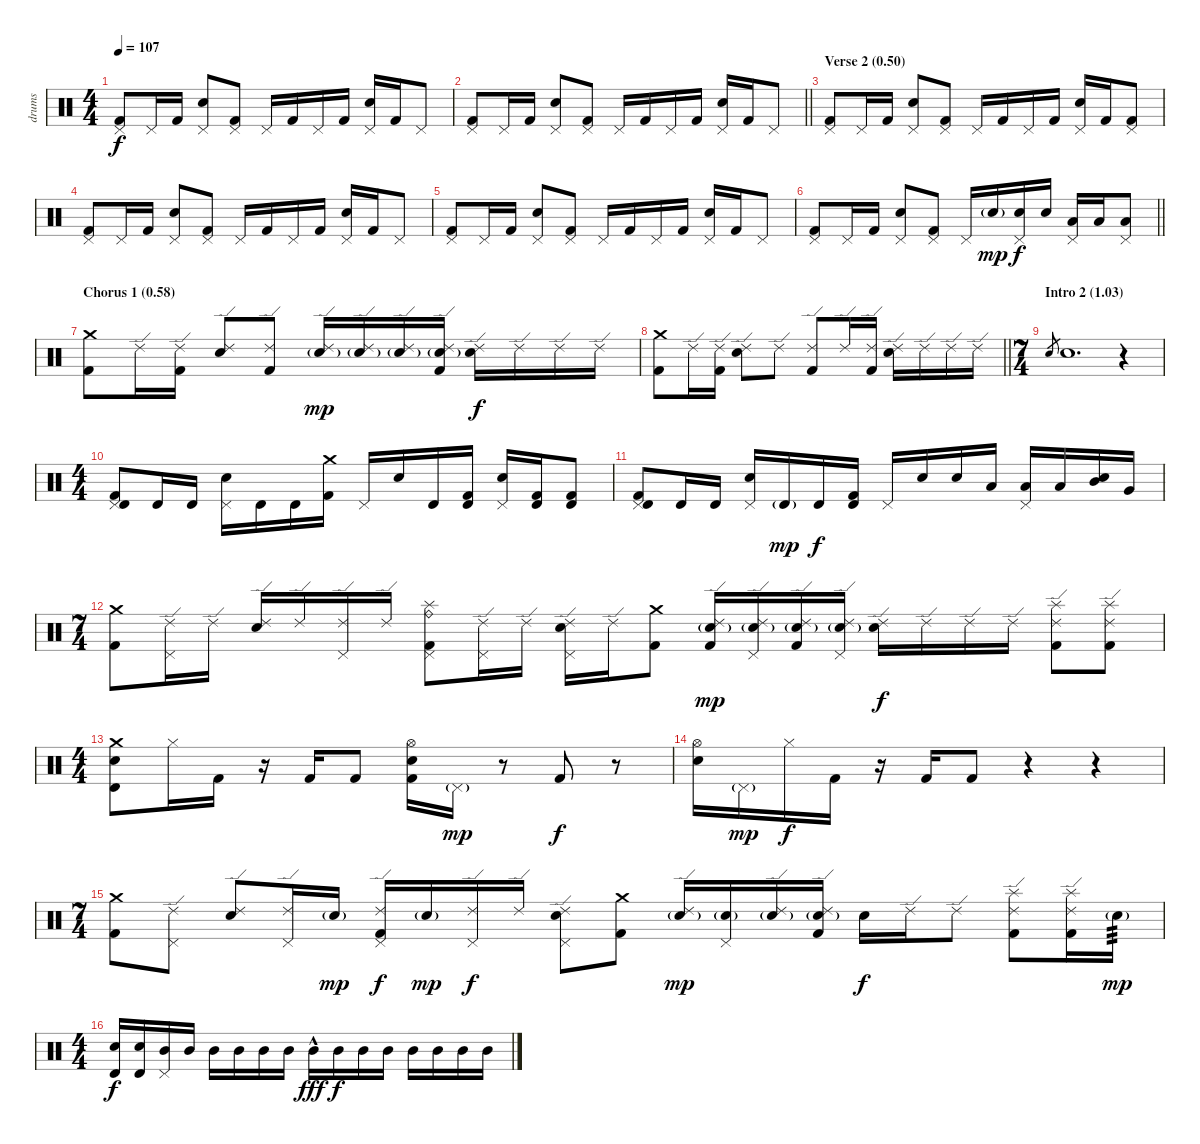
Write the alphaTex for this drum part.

\track ("drums" "drums") {instrument percussion}
\staff {score}
\articulation defaults
\ts (4 4)
\tempo 107
\clef neutral
\ks c
("Pedal Hi-Hat (hit)" "Kick (hit) 2").8{dy f} "Pedal Hi-Hat (hit)".16 "Kick (hit) 2".16 ("Pedal Hi-Hat (hit)" "Electric Snare (hit)").8 ("Pedal Hi-Hat (hit)" "Kick (hit) 2").8 "Pedal Hi-Hat (hit)".16 "Kick (hit) 2".16 "Pedal Hi-Hat (hit)".16 "Kick (hit) 2".16 ("Pedal Hi-Hat (hit)" "Electric Snare (hit)").16 "Kick (hit) 2".16 "Pedal Hi-Hat (hit)".8 |
\barLineRight lightlight
("Pedal Hi-Hat (hit)" "Kick (hit) 2").8 "Pedal Hi-Hat (hit)".16 "Kick (hit) 2".16 ("Pedal Hi-Hat (hit)" "Electric Snare (hit)").8 ("Pedal Hi-Hat (hit)" "Kick (hit) 2").8 "Pedal Hi-Hat (hit)".16 "Kick (hit) 2".16 "Pedal Hi-Hat (hit)".16 "Kick (hit) 2".16 ("Pedal Hi-Hat (hit)" "Electric Snare (hit)").16 "Kick (hit) 2".16 "Pedal Hi-Hat (hit)".8 |
\section ("" "Verse 2 (0.50)")
("Pedal Hi-Hat (hit)" "Kick (hit) 2").8 "Pedal Hi-Hat (hit)".16 "Kick (hit) 2".16 ("Pedal Hi-Hat (hit)" "Electric Snare (hit)").8 ("Pedal Hi-Hat (hit)" "Kick (hit) 2").8 "Pedal Hi-Hat (hit)".16 "Kick (hit) 2".16 "Pedal Hi-Hat (hit)".16 "Kick (hit) 2".16 ("Pedal Hi-Hat (hit)" "Electric Snare (hit)").16 "Kick (hit) 2".16 ("Pedal Hi-Hat (hit)" "Kick (hit) 2").8 |
("Pedal Hi-Hat (hit)" "Kick (hit) 2").8 "Pedal Hi-Hat (hit)".16 "Kick (hit) 2".16 ("Pedal Hi-Hat (hit)" "Electric Snare (hit)").8 ("Pedal Hi-Hat (hit)" "Kick (hit) 2").8 "Pedal Hi-Hat (hit)".16 "Kick (hit) 2".16 "Pedal Hi-Hat (hit)".16 "Kick (hit) 2".16 ("Pedal Hi-Hat (hit)" "Electric Snare (hit)").16 "Kick (hit) 2".16 "Pedal Hi-Hat (hit)".8 |
("Pedal Hi-Hat (hit)" "Kick (hit) 2").8 "Pedal Hi-Hat (hit)".16 "Kick (hit) 2".16 ("Pedal Hi-Hat (hit)" "Electric Snare (hit)").8 ("Pedal Hi-Hat (hit)" "Kick (hit) 2").8 "Pedal Hi-Hat (hit)".16 "Kick (hit) 2".16 "Pedal Hi-Hat (hit)".16 "Kick (hit) 2".16 ("Pedal Hi-Hat (hit)" "Electric Snare (hit)").16 "Kick (hit) 2".16 "Pedal Hi-Hat (hit)".8 |
\barLineRight lightlight
("Pedal Hi-Hat (hit)" "Kick (hit) 2").8 "Pedal Hi-Hat (hit)".16 "Kick (hit) 2".16 ("Pedal Hi-Hat (hit)" "Electric Snare (hit)").8 ("Pedal Hi-Hat (hit)" "Kick (hit) 2").8 "Pedal Hi-Hat (hit)".16 "Electric Snare (hit)"{g}.16{dy mp} ("Pedal Hi-Hat (hit)" "Electric Snare (hit)").16{dy f} "Electric Snare (hit)".16 ("Pedal Hi-Hat (hit)" "Low Tom (hit)").16 "Low Tom (hit)".16 ("Pedal Hi-Hat (hit)" "Low Tom (hit)").8 |
\section ("" "Chorus 1 (0.58)")
("Crash medium (hit)" "Kick (hit) 2").8 "Ride (edge) 2".16 ("Ride (edge) 2" "Kick (hit) 2").16 ("Ride (edge) 2" "Electric Snare (hit)").8 ("Ride (edge) 2" "Kick (hit) 2").8 ("Ride (edge) 2" "Electric Snare (hit)"{g}).16{dy mp} ("Ride (edge) 2" "Electric Snare (hit)"{g}).16 ("Ride (edge) 2" "Electric Snare (hit)"{g}).16 ("Ride (edge) 2" "Electric Snare (hit)"{g} "Kick (hit) 2").16 ("Ride (edge) 2" "Electric Snare (hit)").16{dy f} "Ride (edge) 2".16 "Ride (edge) 2".16 "Ride (edge) 2".16 |
\barLineRight lightlight
("Crash medium (hit)" "Kick (hit) 2").8 "Ride (edge) 2".16 ("Ride (edge) 2" "Kick (hit) 2").16 ("Ride (edge) 2" "Electric Snare (hit)").8 "Ride (edge) 2".8 ("Ride (edge) 2" "Kick (hit) 2").8 "Ride (edge) 2".16 ("Ride (edge) 2" "Kick (hit) 2").16 ("Ride (edge) 2" "Electric Snare (hit)").16 "Ride (edge) 2".16 "Ride (edge) 2".16 "Ride (edge) 2".16 |
\ts (7 4)
\section ("" "Intro 2 (1.03)")
"Electric Snare (hit)".8{gr} "Electric Snare (hit)".1{d} r.4 |
\ts (4 4)
("Pedal Hi-Hat (hit)" "Timbale high (hit)" "Kick (hit) 2").8 "Timbale high (hit)".16 "Timbale high (hit)".16 ("Pedal Hi-Hat (hit)" "Electric Snare (hit)").16 "Timbale high (hit)".16 "Timbale high (hit)".16 ("Crash medium (hit)" "Kick (hit) 2").16 "Pedal Hi-Hat (hit)".16 "Electric Snare (hit)".16 "Timbale high (hit)".16 ("Timbale high (hit)" "Kick (hit) 2").16 ("Pedal Hi-Hat (hit)" "Electric Snare (hit)").16 ("Timbale high (hit)" "Kick (hit) 2").16 ("Timbale high (hit)" "Kick (hit) 2").8 |
("Pedal Hi-Hat (hit)" "Timbale high (hit)" "Kick (hit) 2").8 "Timbale high (hit)".16 "Timbale high (hit)".16 ("Pedal Hi-Hat (hit)" "Electric Snare (hit)").16 "Timbale high (hit)"{g}.16{dy mp} "Timbale high (hit)".16{dy f} ("Timbale high (hit)" "Kick (hit) 2").16 "Pedal Hi-Hat (hit)".16 "Electric Snare (hit)".16 "Electric Snare (hit)".16 "Low Tom (hit)".16 ("Pedal Hi-Hat (hit)" "Low Tom (hit)").16 "Low Tom (hit)".16 ("Mid Tom (hit)" "Electric Snare (hit)").16 "Very Low Tom (hit)".16 |
\ts (7 4)
("Crash medium (hit)" "Kick (hit) 2").8 ("Ride (edge) 2" "Pedal Hi-Hat (hit)").16 "Ride (edge) 2".16 ("Ride (edge) 2" "Electric Snare (hit)").16 "Ride (edge) 2".16 ("Ride (edge) 2" "Pedal Hi-Hat (hit)").16 "Ride (edge) 2".16 ("Ride (bell)" "Pedal Hi-Hat (hit)" "Splash (hit)" "Kick (hit) 2").8 ("Ride (edge) 2" "Pedal Hi-Hat (hit)").16 "Ride (edge) 2".16 ("Ride (edge) 2" "Pedal Hi-Hat (hit)" "Electric Snare (hit)").16 "Ride (edge) 2".16 ("Crash medium (hit)" "Kick (hit) 2").8 ("Ride (edge) 2" "Electric Snare (hit)"{g} "Kick (hit) 2").16{dy mp} ("Ride (edge) 2" "Pedal Hi-Hat (hit)" "Electric Snare (hit)"{g}).16 ("Ride (edge) 2" "Electric Snare (hit)"{g} "Kick (hit) 2").16 ("Ride (edge) 2" "Pedal Hi-Hat (hit)" "Electric Snare (hit)"{g}).16 ("Ride (edge) 2" "Electric Snare (hit)").16{dy f} "Ride (edge) 2".16 "Ride (edge) 2".16 "Ride (edge) 2".16 ("Ride (edge) 2" "Splash (hit)" "Kick (hit) 2").8 ("Ride (edge) 2" "Splash (hit)" "Kick (hit) 2").8 |
\ts (4 4)
("Timbale high (hit)" "Crash medium (hit)" "Electric Snare (hit)").8 "Hi-Hat (closed)".16 "Kick (hit) 2".16 r.16 "Kick (hit) 2".16 "Kick (hit) 2".8 ("Hi-Hat (open)" "Electric Snare (hit)" "Kick (hit) 2").16 "Pedal Hi-Hat (hit)"{g}.16{dy mp} r.8 "Kick (hit) 2".8{dy f} r.8 |
("Hi-Hat (open)" "Electric Snare (hit)").16 "Pedal Hi-Hat (hit)"{g}.16{dy mp} "Hi-Hat (closed)".16{dy f} "Kick (hit) 2".16 r.16 "Kick (hit) 2".16 "Kick (hit) 2".8 r.4 r.4 |
\ts (7 4)
("Crash medium (hit)" "Kick (hit) 2").8 ("Ride (edge) 2" "Pedal Hi-Hat (hit)").8 ("Ride (edge) 2" "Electric Snare (hit)").8 ("Ride (edge) 2" "Pedal Hi-Hat (hit)").16 "Electric Snare (hit)"{g}.16{dy mp} ("Ride (edge) 2" "Pedal Hi-Hat (hit)" "Kick (hit) 2").16{dy f} "Electric Snare (hit)"{g}.16{dy mp} ("Ride (edge) 2" "Pedal Hi-Hat (hit)").16{dy f} "Ride (edge) 2".16 ("Ride (edge) 2" "Pedal Hi-Hat (hit)" "Electric Snare (hit)").8 ("Crash medium (hit)" "Kick (hit) 2").8 ("Ride (edge) 2" "Electric Snare (hit)"{g}).16{dy mp} ("Pedal Hi-Hat (hit)" "Electric Snare (hit)"{g}).16 ("Ride (edge) 2" "Electric Snare (hit)"{g}).16 ("Ride (edge) 2" "Electric Snare (hit)"{g} "Kick (hit) 2").16 "Electric Snare (hit)".16{dy f} "Ride (edge) 2".16 "Ride (edge) 2".8 ("Ride (edge) 2" "Splash (hit)" "Kick (hit) 2").8 ("Ride (edge) 2" "Splash (hit)" "Kick (hit) 2").16 "Electric Snare (hit)"{g}.16{tp 3 dy mp} |
\ts (4 4)
("Timbale high (hit)" "Electric Snare (hit)").16{dy f} ("Timbale high (hit)" "Electric Snare (hit)").16 ("Pedal Hi-Hat (hit)" "Mid Tom (hit)").16 "Mid Tom (hit)".16 "Mid Tom (hit)".16 "Mid Tom (hit)".16 "Mid Tom (hit)".16 "Mid Tom (hit)".16 "Mid Tom (hit)"{hac}.16{dy fff} "Mid Tom (hit)".16{dy f} "Mid Tom (hit)".16 "Mid Tom (hit)".16 "Mid Tom (hit)".16 "Mid Tom (hit)".16 "Mid Tom (hit)".16 "Mid Tom (hit)".16
